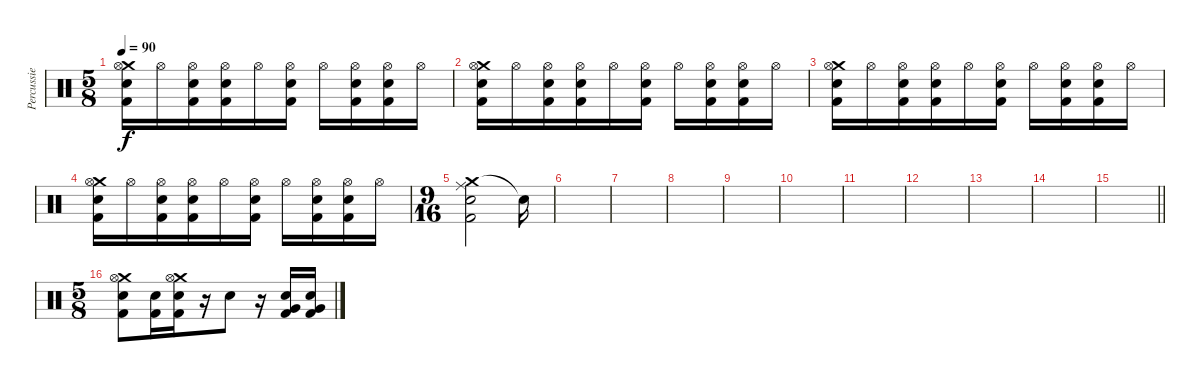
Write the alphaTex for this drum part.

\track ("Percussie" "Percussie") {instrument percussion}
\staff {score}
\articulation defaults
\ts (5 8)
\tempo 90
\clef neutral
\ks c
("Crash medium (hit)" "Hi-Hat (open)" "Snare (hit) 2" "Kick (hit) 2").16{dy f} "Hi-Hat (open)".16 ("Hi-Hat (open)" "Snare (hit) 2" "Kick (hit) 2").16 ("Hi-Hat (open)" "Snare (hit) 2" "Kick (hit) 2").16 "Hi-Hat (open)".16 ("Hi-Hat (open)" "Snare (hit) 2" "Kick (hit) 2").16 "Hi-Hat (open)".16 ("Hi-Hat (open)" "Snare (hit) 2" "Kick (hit) 2").16 ("Hi-Hat (open)" "Snare (hit) 2" "Kick (hit) 2").16 "Hi-Hat (open)".16 |
("Crash medium (hit)" "Hi-Hat (open)" "Snare (hit) 2" "Kick (hit) 2").16 "Hi-Hat (open)".16 ("Hi-Hat (open)" "Snare (hit) 2" "Kick (hit) 2").16 ("Hi-Hat (open)" "Snare (hit) 2" "Kick (hit) 2").16 "Hi-Hat (open)".16 ("Hi-Hat (open)" "Snare (hit) 2" "Kick (hit) 2").16 "Hi-Hat (open)".16 ("Hi-Hat (open)" "Snare (hit) 2" "Kick (hit) 2").16 ("Hi-Hat (open)" "Snare (hit) 2" "Kick (hit) 2").16 "Hi-Hat (open)".16 |
("Crash medium (hit)" "Hi-Hat (open)" "Snare (hit) 2" "Kick (hit) 2").16 "Hi-Hat (open)".16 ("Hi-Hat (open)" "Snare (hit) 2" "Kick (hit) 2").16 ("Hi-Hat (open)" "Snare (hit) 2" "Kick (hit) 2").16 "Hi-Hat (open)".16 ("Hi-Hat (open)" "Snare (hit) 2" "Kick (hit) 2").16 "Hi-Hat (open)".16 ("Hi-Hat (open)" "Snare (hit) 2" "Kick (hit) 2").16 ("Hi-Hat (open)" "Snare (hit) 2" "Kick (hit) 2").16 "Hi-Hat (open)".16 |
("Crash medium (hit)" "Hi-Hat (open)" "Snare (hit) 2" "Kick (hit) 2").16 "Hi-Hat (open)".16 ("Hi-Hat (open)" "Snare (hit) 2" "Kick (hit) 2").16 ("Hi-Hat (open)" "Snare (hit) 2" "Kick (hit) 2").16 "Hi-Hat (open)".16 ("Hi-Hat (open)" "Snare (hit) 2" "Kick (hit) 2").16 "Hi-Hat (open)".16 ("Hi-Hat (open)" "Snare (hit) 2" "Kick (hit) 2").16 ("Hi-Hat (open)" "Snare (hit) 2" "Kick (hit) 2").16 "Hi-Hat (open)".16 |
\ts (9 16)
("Crash medium (hit)" "Ride (middle)" "Snare (hit) 2" "Kick (hit) 2").2 "Snare (hit)"{t}.16 |
|
|
|
|
|
|
|
|
|
\barLineRight lightlight
|
\ts (5 8)
("Crash medium (hit)" "Hi-Hat (open)" "Snare (hit) 2" "Kick (hit) 2").8 ("Snare (hit) 2" "Kick (hit) 2").16 ("Crash medium (hit)" "Hi-Hat (open)" "Snare (hit) 2" "Kick (hit) 2").16 r.16 "Snare (hit) 2".8 r.16 ("Very Low Tom (hit)" "Snare (hit) 2" "Kick (hit) 2").16 ("Very Low Tom (hit)" "Snare (hit) 2" "Kick (hit) 2").16
